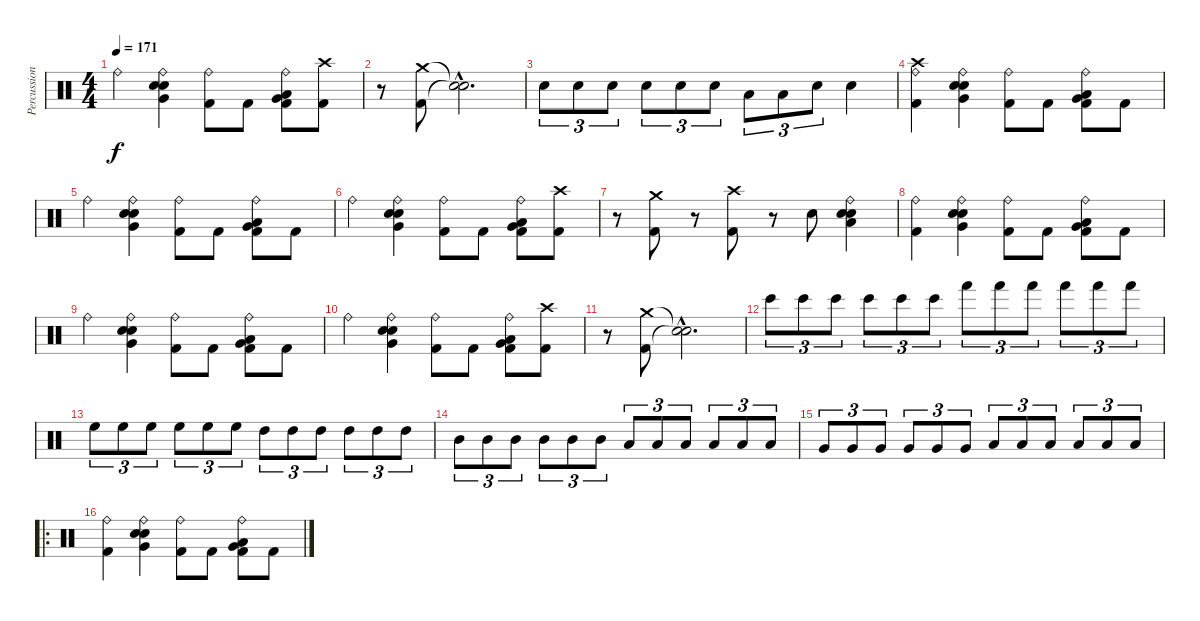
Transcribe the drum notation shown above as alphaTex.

\track ("Percussion" "Percussion") {instrument percussion}
\staff {score}
\articulation defaults
\ts (4 4)
\tempo 171
\clef neutral
\ks c "Ride (bell)".4{dy f}
("Ride (bell)" "Very Low Tom (hit)" "Metronome (bell)" "Electric Snare (hit)").4 ("Ride (bell)" "Kick (hit) 2").8 "Kick (hit) 2".8 ("Ride (bell)" "Very Low Tom (hit)" "Low Floor Tom (hit)" "Kick (hit) 2").8 ("Crash high (hit)" "Kick (hit) 2").8 |
r.8 ("Crash medium (hit)" "Kick (hit) 2").8 ("Snare (hit)"{hac t} "Snare (hit)"{hac t}).2{d} |
"Metronome (bell)".8{tu (3 2)} "Metronome (bell)".8{tu (3 2)} "Metronome (bell)".8{tu (3 2)} "Metronome (bell)".8{tu (3 2)} "Metronome (bell)".8{tu (3 2)} "Metronome (bell)".8{tu (3 2)} "Low Floor Tom (hit)".8{tu (3 2)} "Low Floor Tom (hit)".8{tu (3 2)} "Metronome (bell)".8{tu (3 2)} "Metronome (bell)".4 |
("Ride (bell)" "Crash high (hit)" "Kick (hit) 2").4 ("Ride (bell)" "Very Low Tom (hit)" "Metronome (bell)" "Electric Snare (hit)").4 ("Ride (bell)" "Kick (hit) 2").8 "Kick (hit) 2".8 ("Ride (bell)" "Very Low Tom (hit)" "Low Floor Tom (hit)" "Kick (hit) 2").8 "Kick (hit) 2".8 |
"Ride (bell)".4 ("Ride (bell)" "Very Low Tom (hit)" "Metronome (bell)" "Electric Snare (hit)").4 ("Ride (bell)" "Kick (hit) 2").8 "Kick (hit) 2".8 ("Ride (bell)" "Very Low Tom (hit)" "Low Floor Tom (hit)" "Kick (hit) 2").8 "Kick (hit) 2".8 |
"Ride (bell)".4 ("Ride (bell)" "Very Low Tom (hit)" "Metronome (bell)" "Electric Snare (hit)").4 ("Ride (bell)" "Kick (hit) 2").8 "Kick (hit) 2".8 ("Ride (bell)" "Very Low Tom (hit)" "Low Floor Tom (hit)" "Kick (hit) 2").8 ("Crash high (hit)" "Kick (hit) 2").8 |
r.8 ("Crash medium (hit)" "Kick (hit) 2").8 r.8 ("Crash high (hit)" "Kick (hit) 2").8 r.8 "Metronome (bell)".8 ("Ride (bell)" "Low Floor Tom (hit)" "Electric Snare (hit)" "Metronome (bell)").4 |
("Ride (bell)" "Kick (hit) 2").4 ("Ride (bell)" "Very Low Tom (hit)" "Metronome (bell)" "Electric Snare (hit)").4 ("Ride (bell)" "Kick (hit) 2").8 "Kick (hit) 2".8 ("Ride (bell)" "Very Low Tom (hit)" "Low Floor Tom (hit)" "Kick (hit) 2").8 "Kick (hit) 2".8 |
"Ride (bell)".4 ("Ride (bell)" "Very Low Tom (hit)" "Metronome (bell)" "Electric Snare (hit)").4 ("Ride (bell)" "Kick (hit) 2").8 "Kick (hit) 2".8 ("Ride (bell)" "Very Low Tom (hit)" "Low Floor Tom (hit)" "Kick (hit) 2").8 "Kick (hit) 2".8 |
"Ride (bell)".4 ("Ride (bell)" "Very Low Tom (hit)" "Metronome (bell)" "Electric Snare (hit)").4 ("Ride (bell)" "Kick (hit) 2").8 "Kick (hit) 2".8 ("Ride (bell)" "Very Low Tom (hit)" "Low Floor Tom (hit)" "Kick (hit) 2").8 ("Crash high (hit)" "Kick (hit) 2").8 |
r.8 ("Crash medium (hit)" "Kick (hit) 2").8 ("Snare (hit)"{hac t} "Snare (hit)"{hac t}).2{d} |
"Bongo High (hit)".8{tu (3 2)} "Bongo High (hit)".8{tu (3 2)} "Bongo High (hit)".8{tu (3 2)} "Bongo High (hit)".8{tu (3 2)} "Bongo High (hit)".8{tu (3 2)} "Bongo High (hit)".8{tu (3 2)} "Hand (hit)".8{tu (3 2)} "Hand (hit)".8{tu (3 2)} "Hand (hit)".8{tu (3 2)} "Hand (hit)".8{tu (3 2)} "Hand (hit)".8{tu (3 2)} "Hand (hit)".8{tu (3 2)} |
"High Floor Tom (hit)".8{tu (3 2)} "High Floor Tom (hit)".8{tu (3 2)} "High Floor Tom (hit)".8{tu (3 2)} "High Floor Tom (hit)".8{tu (3 2)} "High Floor Tom (hit)".8{tu (3 2)} "High Floor Tom (hit)".8{tu (3 2)} "High Tom (hit)".8{tu (3 2)} "High Tom (hit)".8{tu (3 2)} "High Tom (hit)".8{tu (3 2)} "High Tom (hit)".8{tu (3 2)} "High Tom (hit)".8{tu (3 2)} "High Tom (hit)".8{tu (3 2)} |
"Mid Tom (hit)".8{tu (3 2)} "Mid Tom (hit)".8{tu (3 2)} "Mid Tom (hit)".8{tu (3 2)} "Mid Tom (hit)".8{tu (3 2)} "Mid Tom (hit)".8{tu (3 2)} "Mid Tom (hit)".8{tu (3 2)} "Low Tom (hit)".8{tu (3 2)} "Low Tom (hit)".8{tu (3 2)} "Low Tom (hit)".8{tu (3 2)} "Low Tom (hit)".8{tu (3 2)} "Low Tom (hit)".8{tu (3 2)} "Low Tom (hit)".8{tu (3 2)} |
"Very Low Tom (hit)".8{tu (3 2)} "Very Low Tom (hit)".8{tu (3 2)} "Very Low Tom (hit)".8{tu (3 2)} "Very Low Tom (hit)".8{tu (3 2)} "Very Low Tom (hit)".8{tu (3 2)} "Very Low Tom (hit)".8{tu (3 2)} "Low Floor Tom (hit)".8{tu (3 2)} "Low Floor Tom (hit)".8{tu (3 2)} "Low Floor Tom (hit)".8{tu (3 2)} "Low Floor Tom (hit)".8{tu (3 2)} "Low Floor Tom (hit)".8{tu (3 2)} "Low Floor Tom (hit)".8{tu (3 2)} |
\ro
("Ride (bell)" "Kick (hit) 2").4 ("Ride (bell)" "Very Low Tom (hit)" "Metronome (bell)" "Electric Snare (hit)").4 ("Ride (bell)" "Kick (hit) 2").8 "Kick (hit) 2".8 ("Ride (bell)" "Very Low Tom (hit)" "Low Floor Tom (hit)" "Kick (hit) 2").8 "Kick (hit) 2".8
